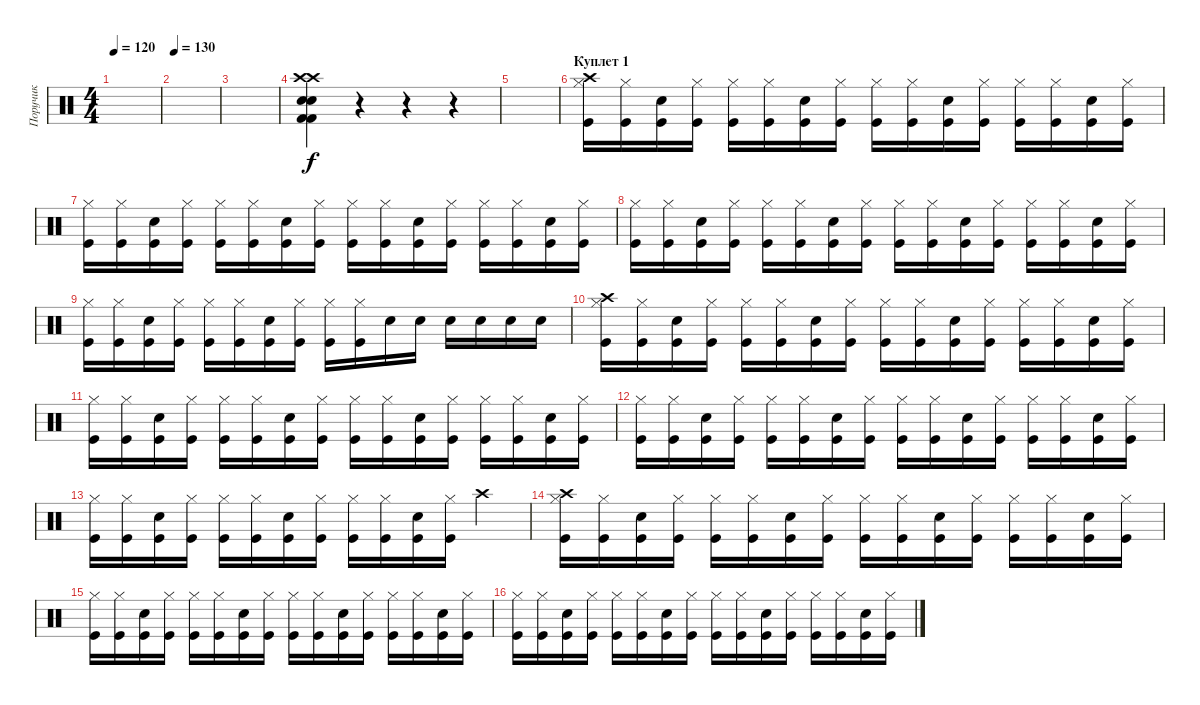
\track ("Поручик" "Поручик") {instrument percussion}
\staff {score}
\articulation defaults
\ts (4 4)
\tempo 120
\clef neutral
\ks c
|
\tempo 130
|
|
("Crash high (hit)" "Crash high (hit)" "Kick (hit) 2" "Kick (hit) 2" "Snare (hit) 2" "Snare (hit) 2").4 r.4 r.4 r.4 |
|
\section ("" "Куплет 1")
("Hi-Hat (closed)" "Kick (hit)" "Crash high (hit)").16 ("Hi-Hat (closed)" "Kick (hit)").16 ("Snare (hit) 2" "Kick (hit)").16 ("Hi-Hat (closed)" "Kick (hit)").16 ("Hi-Hat (closed)" "Kick (hit)").16 ("Hi-Hat (closed)" "Kick (hit)").16 ("Snare (hit) 2" "Kick (hit)").16 ("Hi-Hat (closed)" "Kick (hit)").16 ("Hi-Hat (closed)" "Kick (hit)").16 ("Hi-Hat (closed)" "Kick (hit)").16 ("Snare (hit) 2" "Kick (hit)").16 ("Hi-Hat (closed)" "Kick (hit)").16 ("Hi-Hat (closed)" "Kick (hit)").16 ("Hi-Hat (closed)" "Kick (hit)").16 ("Snare (hit) 2" "Kick (hit)").16 ("Hi-Hat (closed)" "Kick (hit)").16 |
("Hi-Hat (closed)" "Kick (hit)").16 ("Hi-Hat (closed)" "Kick (hit)").16 ("Snare (hit) 2" "Kick (hit)").16 ("Hi-Hat (closed)" "Kick (hit)").16 ("Hi-Hat (closed)" "Kick (hit)").16 ("Hi-Hat (closed)" "Kick (hit)").16 ("Snare (hit) 2" "Kick (hit)").16 ("Hi-Hat (closed)" "Kick (hit)").16 ("Hi-Hat (closed)" "Kick (hit)").16 ("Hi-Hat (closed)" "Kick (hit)").16 ("Snare (hit) 2" "Kick (hit)").16 ("Hi-Hat (closed)" "Kick (hit)").16 ("Hi-Hat (closed)" "Kick (hit)").16 ("Hi-Hat (closed)" "Kick (hit)").16 ("Snare (hit) 2" "Kick (hit)").16 ("Hi-Hat (closed)" "Kick (hit)").16 |
("Hi-Hat (closed)" "Kick (hit)").16 ("Hi-Hat (closed)" "Kick (hit)").16 ("Snare (hit) 2" "Kick (hit)").16 ("Hi-Hat (closed)" "Kick (hit)").16 ("Hi-Hat (closed)" "Kick (hit)").16 ("Hi-Hat (closed)" "Kick (hit)").16 ("Snare (hit) 2" "Kick (hit)").16 ("Hi-Hat (closed)" "Kick (hit)").16 ("Hi-Hat (closed)" "Kick (hit)").16 ("Hi-Hat (closed)" "Kick (hit)").16 ("Snare (hit) 2" "Kick (hit)").16 ("Hi-Hat (closed)" "Kick (hit)").16 ("Hi-Hat (closed)" "Kick (hit)").16 ("Hi-Hat (closed)" "Kick (hit)").16 ("Snare (hit) 2" "Kick (hit)").16 ("Hi-Hat (closed)" "Kick (hit)").16 |
("Hi-Hat (closed)" "Kick (hit)").16 ("Hi-Hat (closed)" "Kick (hit)").16 ("Snare (hit) 2" "Kick (hit)").16 ("Hi-Hat (closed)" "Kick (hit)").16 ("Hi-Hat (closed)" "Kick (hit)").16 ("Hi-Hat (closed)" "Kick (hit)").16 ("Snare (hit) 2" "Kick (hit)").16 ("Hi-Hat (closed)" "Kick (hit)").16 ("Hi-Hat (closed)" "Kick (hit)").16 ("Hi-Hat (closed)" "Kick (hit)").16 "Snare (hit) 2".16 "Snare (hit) 2".16 "Snare (hit) 2".16 "Snare (hit) 2".16 "Snare (hit) 2".16 "Snare (hit) 2".16 |
("Hi-Hat (closed)" "Kick (hit)" "Crash high (hit)").16 ("Hi-Hat (closed)" "Kick (hit)").16 ("Snare (hit) 2" "Kick (hit)").16 ("Hi-Hat (closed)" "Kick (hit)").16 ("Hi-Hat (closed)" "Kick (hit)").16 ("Hi-Hat (closed)" "Kick (hit)").16 ("Snare (hit) 2" "Kick (hit)").16 ("Hi-Hat (closed)" "Kick (hit)").16 ("Hi-Hat (closed)" "Kick (hit)").16 ("Hi-Hat (closed)" "Kick (hit)").16 ("Snare (hit) 2" "Kick (hit)").16 ("Hi-Hat (closed)" "Kick (hit)").16 ("Hi-Hat (closed)" "Kick (hit)").16 ("Hi-Hat (closed)" "Kick (hit)").16 ("Snare (hit) 2" "Kick (hit)").16 ("Hi-Hat (closed)" "Kick (hit)").16 |
("Hi-Hat (closed)" "Kick (hit)").16 ("Hi-Hat (closed)" "Kick (hit)").16 ("Snare (hit) 2" "Kick (hit)").16 ("Hi-Hat (closed)" "Kick (hit)").16 ("Hi-Hat (closed)" "Kick (hit)").16 ("Hi-Hat (closed)" "Kick (hit)").16 ("Snare (hit) 2" "Kick (hit)").16 ("Hi-Hat (closed)" "Kick (hit)").16 ("Hi-Hat (closed)" "Kick (hit)").16 ("Hi-Hat (closed)" "Kick (hit)").16 ("Snare (hit) 2" "Kick (hit)").16 ("Hi-Hat (closed)" "Kick (hit)").16 ("Hi-Hat (closed)" "Kick (hit)").16 ("Hi-Hat (closed)" "Kick (hit)").16 ("Snare (hit) 2" "Kick (hit)").16 ("Hi-Hat (closed)" "Kick (hit)").16 |
("Hi-Hat (closed)" "Kick (hit)").16 ("Hi-Hat (closed)" "Kick (hit)").16 ("Snare (hit) 2" "Kick (hit)").16 ("Hi-Hat (closed)" "Kick (hit)").16 ("Hi-Hat (closed)" "Kick (hit)").16 ("Hi-Hat (closed)" "Kick (hit)").16 ("Snare (hit) 2" "Kick (hit)").16 ("Hi-Hat (closed)" "Kick (hit)").16 ("Hi-Hat (closed)" "Kick (hit)").16 ("Hi-Hat (closed)" "Kick (hit)").16 ("Snare (hit) 2" "Kick (hit)").16 ("Hi-Hat (closed)" "Kick (hit)").16 ("Hi-Hat (closed)" "Kick (hit)").16 ("Hi-Hat (closed)" "Kick (hit)").16 ("Snare (hit) 2" "Kick (hit)").16 ("Hi-Hat (closed)" "Kick (hit)").16 |
("Hi-Hat (closed)" "Kick (hit)").16 ("Hi-Hat (closed)" "Kick (hit)").16 ("Snare (hit) 2" "Kick (hit)").16 ("Hi-Hat (closed)" "Kick (hit)").16 ("Hi-Hat (closed)" "Kick (hit)").16 ("Hi-Hat (closed)" "Kick (hit)").16 ("Snare (hit) 2" "Kick (hit)").16 ("Hi-Hat (closed)" "Kick (hit)").16 ("Hi-Hat (closed)" "Kick (hit)").16 ("Hi-Hat (closed)" "Kick (hit)").16 ("Snare (hit) 2" "Kick (hit)").16 ("Hi-Hat (closed)" "Kick (hit)").16 "Crash high (hit)".4 |
("Hi-Hat (closed)" "Kick (hit)" "Crash high (hit)").16 ("Hi-Hat (closed)" "Kick (hit)").16 ("Snare (hit) 2" "Kick (hit)").16 ("Hi-Hat (closed)" "Kick (hit)").16 ("Hi-Hat (closed)" "Kick (hit)").16 ("Hi-Hat (closed)" "Kick (hit)").16 ("Snare (hit) 2" "Kick (hit)").16 ("Hi-Hat (closed)" "Kick (hit)").16 ("Hi-Hat (closed)" "Kick (hit)").16 ("Hi-Hat (closed)" "Kick (hit)").16 ("Snare (hit) 2" "Kick (hit)").16 ("Hi-Hat (closed)" "Kick (hit)").16 ("Hi-Hat (closed)" "Kick (hit)").16 ("Hi-Hat (closed)" "Kick (hit)").16 ("Snare (hit) 2" "Kick (hit)").16 ("Hi-Hat (closed)" "Kick (hit)").16 |
("Hi-Hat (closed)" "Kick (hit)").16 ("Hi-Hat (closed)" "Kick (hit)").16 ("Snare (hit) 2" "Kick (hit)").16 ("Hi-Hat (closed)" "Kick (hit)").16 ("Hi-Hat (closed)" "Kick (hit)").16 ("Hi-Hat (closed)" "Kick (hit)").16 ("Snare (hit) 2" "Kick (hit)").16 ("Hi-Hat (closed)" "Kick (hit)").16 ("Hi-Hat (closed)" "Kick (hit)").16 ("Hi-Hat (closed)" "Kick (hit)").16 ("Snare (hit) 2" "Kick (hit)").16 ("Hi-Hat (closed)" "Kick (hit)").16 ("Hi-Hat (closed)" "Kick (hit)").16 ("Hi-Hat (closed)" "Kick (hit)").16 ("Snare (hit) 2" "Kick (hit)").16 ("Hi-Hat (closed)" "Kick (hit)").16 |
("Hi-Hat (closed)" "Kick (hit)").16 ("Hi-Hat (closed)" "Kick (hit)").16 ("Snare (hit) 2" "Kick (hit)").16 ("Hi-Hat (closed)" "Kick (hit)").16 ("Hi-Hat (closed)" "Kick (hit)").16 ("Hi-Hat (closed)" "Kick (hit)").16 ("Snare (hit) 2" "Kick (hit)").16 ("Hi-Hat (closed)" "Kick (hit)").16 ("Hi-Hat (closed)" "Kick (hit)").16 ("Hi-Hat (closed)" "Kick (hit)").16 ("Snare (hit) 2" "Kick (hit)").16 ("Hi-Hat (closed)" "Kick (hit)").16 ("Hi-Hat (closed)" "Kick (hit)").16 ("Hi-Hat (closed)" "Kick (hit)").16 ("Snare (hit) 2" "Kick (hit)").16 ("Hi-Hat (closed)" "Kick (hit)").16
